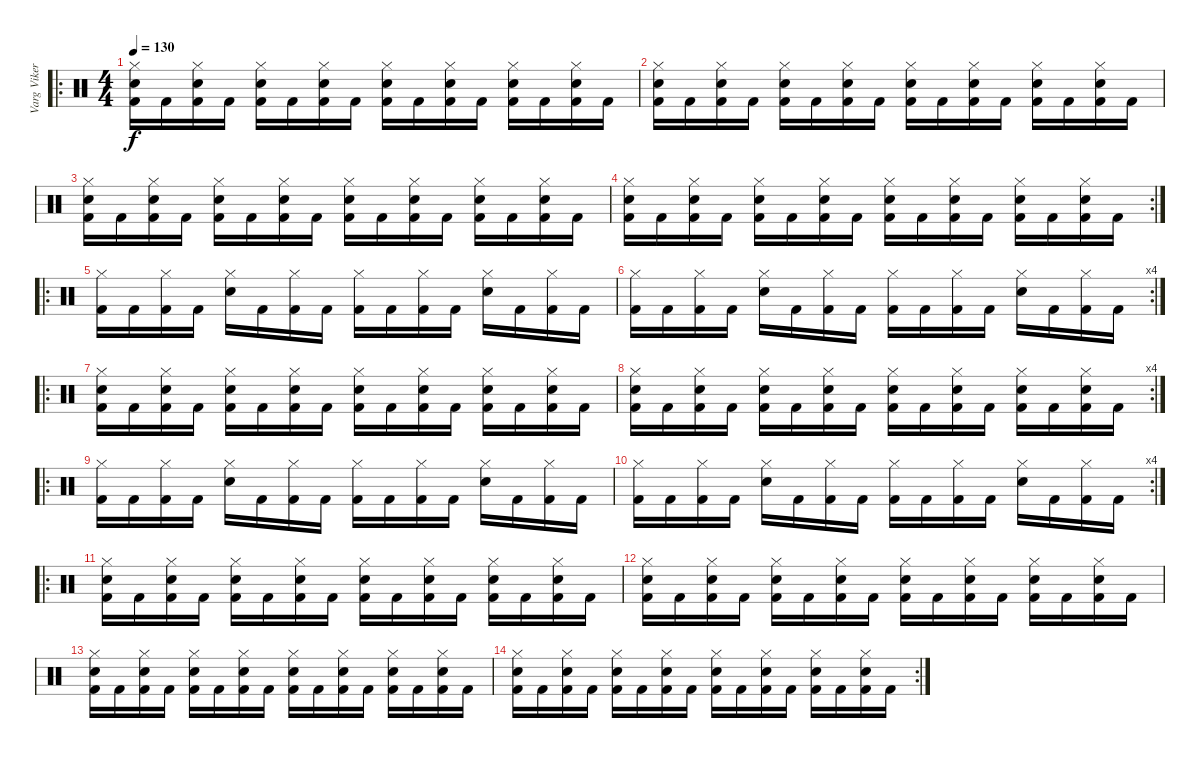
\track ("Varg Vikernes (Drums)" "Varg Viker") {instrument percussion}
\staff {score}
\articulation defaults
\ro
\ts (4 4)
\tempo 130
\clef neutral
\ks c
("Hi-Hat (closed)" "Kick (hit) 2" "Electric Snare (hit)").16{dy f} "Kick (hit) 2".16 ("Hi-Hat (closed)" "Kick (hit) 2" "Electric Snare (hit)").16 "Kick (hit) 2".16 ("Hi-Hat (closed)" "Kick (hit) 2" "Electric Snare (hit)").16 "Kick (hit) 2".16 ("Hi-Hat (closed)" "Kick (hit) 2" "Electric Snare (hit)").16 "Kick (hit) 2".16 ("Hi-Hat (closed)" "Kick (hit) 2" "Electric Snare (hit)").16 "Kick (hit) 2".16 ("Hi-Hat (closed)" "Kick (hit) 2" "Electric Snare (hit)").16 "Kick (hit) 2".16 ("Hi-Hat (closed)" "Kick (hit) 2" "Electric Snare (hit)").16 "Kick (hit) 2".16 ("Hi-Hat (closed)" "Kick (hit) 2" "Electric Snare (hit)").16 "Kick (hit) 2".16 |
("Hi-Hat (closed)" "Kick (hit) 2" "Electric Snare (hit)").16 "Kick (hit) 2".16 ("Hi-Hat (closed)" "Kick (hit) 2" "Electric Snare (hit)").16 "Kick (hit) 2".16 ("Hi-Hat (closed)" "Kick (hit) 2" "Electric Snare (hit)").16 "Kick (hit) 2".16 ("Hi-Hat (closed)" "Kick (hit) 2" "Electric Snare (hit)").16 "Kick (hit) 2".16 ("Hi-Hat (closed)" "Kick (hit) 2" "Electric Snare (hit)").16 "Kick (hit) 2".16 ("Hi-Hat (closed)" "Kick (hit) 2" "Electric Snare (hit)").16 "Kick (hit) 2".16 ("Hi-Hat (closed)" "Kick (hit) 2" "Electric Snare (hit)").16 "Kick (hit) 2".16 ("Hi-Hat (closed)" "Kick (hit) 2" "Electric Snare (hit)").16 "Kick (hit) 2".16 |
("Hi-Hat (closed)" "Kick (hit) 2" "Electric Snare (hit)").16 "Kick (hit) 2".16 ("Hi-Hat (closed)" "Kick (hit) 2" "Electric Snare (hit)").16 "Kick (hit) 2".16 ("Hi-Hat (closed)" "Kick (hit) 2" "Electric Snare (hit)").16 "Kick (hit) 2".16 ("Hi-Hat (closed)" "Kick (hit) 2" "Electric Snare (hit)").16 "Kick (hit) 2".16 ("Hi-Hat (closed)" "Kick (hit) 2" "Electric Snare (hit)").16 "Kick (hit) 2".16 ("Hi-Hat (closed)" "Kick (hit) 2" "Electric Snare (hit)").16 "Kick (hit) 2".16 ("Hi-Hat (closed)" "Kick (hit) 2" "Electric Snare (hit)").16 "Kick (hit) 2".16 ("Hi-Hat (closed)" "Kick (hit) 2" "Electric Snare (hit)").16 "Kick (hit) 2".16 |
\rc 2
("Hi-Hat (closed)" "Kick (hit) 2" "Electric Snare (hit)").16 "Kick (hit) 2".16 ("Hi-Hat (closed)" "Kick (hit) 2" "Electric Snare (hit)").16 "Kick (hit) 2".16 ("Hi-Hat (closed)" "Kick (hit) 2" "Electric Snare (hit)").16 "Kick (hit) 2".16 ("Hi-Hat (closed)" "Kick (hit) 2" "Electric Snare (hit)").16 "Kick (hit) 2".16 ("Hi-Hat (closed)" "Kick (hit) 2" "Electric Snare (hit)").16 "Kick (hit) 2".16 ("Hi-Hat (closed)" "Kick (hit) 2" "Electric Snare (hit)").16 "Kick (hit) 2".16 ("Hi-Hat (closed)" "Kick (hit) 2" "Electric Snare (hit)").16 "Kick (hit) 2".16 ("Hi-Hat (closed)" "Kick (hit) 2" "Electric Snare (hit)").16 "Kick (hit) 2".16 |
\ro
("Hi-Hat (closed)" "Kick (hit) 2").16 "Kick (hit) 2".16 ("Hi-Hat (closed)" "Kick (hit) 2").16 "Kick (hit) 2".16 ("Hi-Hat (closed)" "Electric Snare (hit)").16 "Kick (hit) 2".16 ("Hi-Hat (closed)" "Kick (hit) 2").16 "Kick (hit) 2".16 ("Hi-Hat (closed)" "Kick (hit) 2").16 "Kick (hit) 2".16 ("Hi-Hat (closed)" "Kick (hit) 2").16 "Kick (hit) 2".16 ("Hi-Hat (closed)" "Electric Snare (hit)").16 "Kick (hit) 2".16 ("Hi-Hat (closed)" "Kick (hit) 2").16 "Kick (hit) 2".16 |
\rc 4
("Hi-Hat (closed)" "Kick (hit) 2").16 "Kick (hit) 2".16 ("Hi-Hat (closed)" "Kick (hit) 2").16 "Kick (hit) 2".16 ("Hi-Hat (closed)" "Electric Snare (hit)").16 "Kick (hit) 2".16 ("Hi-Hat (closed)" "Kick (hit) 2").16 "Kick (hit) 2".16 ("Hi-Hat (closed)" "Kick (hit) 2").16 "Kick (hit) 2".16 ("Hi-Hat (closed)" "Kick (hit) 2").16 "Kick (hit) 2".16 ("Hi-Hat (closed)" "Electric Snare (hit)").16 "Kick (hit) 2".16 ("Hi-Hat (closed)" "Kick (hit) 2").16 "Kick (hit) 2".16 |
\ro
("Hi-Hat (closed)" "Electric Snare (hit)" "Kick (hit) 2").16 "Kick (hit) 2".16 ("Hi-Hat (closed)" "Electric Snare (hit)" "Kick (hit) 2").16 "Kick (hit) 2".16 ("Hi-Hat (closed)" "Electric Snare (hit)" "Kick (hit) 2").16 "Kick (hit) 2".16 ("Hi-Hat (closed)" "Electric Snare (hit)" "Kick (hit) 2").16 "Kick (hit) 2".16 ("Hi-Hat (closed)" "Electric Snare (hit)" "Kick (hit) 2").16 "Kick (hit) 2".16 ("Hi-Hat (closed)" "Electric Snare (hit)" "Kick (hit) 2").16 "Kick (hit) 2".16 ("Hi-Hat (closed)" "Electric Snare (hit)" "Kick (hit) 2").16 "Kick (hit) 2".16 ("Hi-Hat (closed)" "Electric Snare (hit)" "Kick (hit) 2").16 "Kick (hit) 2".16 |
\rc 4
("Hi-Hat (closed)" "Electric Snare (hit)" "Kick (hit) 2").16 "Kick (hit) 2".16 ("Hi-Hat (closed)" "Electric Snare (hit)" "Kick (hit) 2").16 "Kick (hit) 2".16 ("Hi-Hat (closed)" "Electric Snare (hit)" "Kick (hit) 2").16 "Kick (hit) 2".16 ("Hi-Hat (closed)" "Electric Snare (hit)" "Kick (hit) 2").16 "Kick (hit) 2".16 ("Hi-Hat (closed)" "Electric Snare (hit)" "Kick (hit) 2").16 "Kick (hit) 2".16 ("Hi-Hat (closed)" "Electric Snare (hit)" "Kick (hit) 2").16 "Kick (hit) 2".16 ("Hi-Hat (closed)" "Electric Snare (hit)" "Kick (hit) 2").16 "Kick (hit) 2".16 ("Hi-Hat (closed)" "Electric Snare (hit)" "Kick (hit) 2").16 "Kick (hit) 2".16 |
\ro
("Hi-Hat (closed)" "Kick (hit) 2").16 "Kick (hit) 2".16 ("Hi-Hat (closed)" "Kick (hit) 2").16 "Kick (hit) 2".16 ("Hi-Hat (closed)" "Electric Snare (hit)").16 "Kick (hit) 2".16 ("Hi-Hat (closed)" "Kick (hit) 2").16 "Kick (hit) 2".16 ("Hi-Hat (closed)" "Kick (hit) 2").16 "Kick (hit) 2".16 ("Hi-Hat (closed)" "Kick (hit) 2").16 "Kick (hit) 2".16 ("Hi-Hat (closed)" "Electric Snare (hit)").16 "Kick (hit) 2".16 ("Hi-Hat (closed)" "Kick (hit) 2").16 "Kick (hit) 2".16 |
\rc 4
("Hi-Hat (closed)" "Kick (hit) 2").16 "Kick (hit) 2".16 ("Hi-Hat (closed)" "Kick (hit) 2").16 "Kick (hit) 2".16 ("Hi-Hat (closed)" "Electric Snare (hit)").16 "Kick (hit) 2".16 ("Hi-Hat (closed)" "Kick (hit) 2").16 "Kick (hit) 2".16 ("Hi-Hat (closed)" "Kick (hit) 2").16 "Kick (hit) 2".16 ("Hi-Hat (closed)" "Kick (hit) 2").16 "Kick (hit) 2".16 ("Hi-Hat (closed)" "Electric Snare (hit)").16 "Kick (hit) 2".16 ("Hi-Hat (closed)" "Kick (hit) 2").16 "Kick (hit) 2".16 |
\ro
("Hi-Hat (closed)" "Kick (hit) 2" "Electric Snare (hit)").16 "Kick (hit) 2".16 ("Hi-Hat (closed)" "Kick (hit) 2" "Electric Snare (hit)").16 "Kick (hit) 2".16 ("Hi-Hat (closed)" "Kick (hit) 2" "Electric Snare (hit)").16 "Kick (hit) 2".16 ("Hi-Hat (closed)" "Kick (hit) 2" "Electric Snare (hit)").16 "Kick (hit) 2".16 ("Hi-Hat (closed)" "Kick (hit) 2" "Electric Snare (hit)").16 "Kick (hit) 2".16 ("Hi-Hat (closed)" "Kick (hit) 2" "Electric Snare (hit)").16 "Kick (hit) 2".16 ("Hi-Hat (closed)" "Kick (hit) 2" "Electric Snare (hit)").16 "Kick (hit) 2".16 ("Hi-Hat (closed)" "Kick (hit) 2" "Electric Snare (hit)").16 "Kick (hit) 2".16 |
("Hi-Hat (closed)" "Kick (hit) 2" "Electric Snare (hit)").16 "Kick (hit) 2".16 ("Hi-Hat (closed)" "Kick (hit) 2" "Electric Snare (hit)").16 "Kick (hit) 2".16 ("Hi-Hat (closed)" "Kick (hit) 2" "Electric Snare (hit)").16 "Kick (hit) 2".16 ("Hi-Hat (closed)" "Kick (hit) 2" "Electric Snare (hit)").16 "Kick (hit) 2".16 ("Hi-Hat (closed)" "Kick (hit) 2" "Electric Snare (hit)").16 "Kick (hit) 2".16 ("Hi-Hat (closed)" "Kick (hit) 2" "Electric Snare (hit)").16 "Kick (hit) 2".16 ("Hi-Hat (closed)" "Kick (hit) 2" "Electric Snare (hit)").16 "Kick (hit) 2".16 ("Hi-Hat (closed)" "Kick (hit) 2" "Electric Snare (hit)").16 "Kick (hit) 2".16 |
("Hi-Hat (closed)" "Kick (hit) 2" "Electric Snare (hit)").16 "Kick (hit) 2".16 ("Hi-Hat (closed)" "Kick (hit) 2" "Electric Snare (hit)").16 "Kick (hit) 2".16 ("Hi-Hat (closed)" "Kick (hit) 2" "Electric Snare (hit)").16 "Kick (hit) 2".16 ("Hi-Hat (closed)" "Kick (hit) 2" "Electric Snare (hit)").16 "Kick (hit) 2".16 ("Hi-Hat (closed)" "Kick (hit) 2" "Electric Snare (hit)").16 "Kick (hit) 2".16 ("Hi-Hat (closed)" "Kick (hit) 2" "Electric Snare (hit)").16 "Kick (hit) 2".16 ("Hi-Hat (closed)" "Kick (hit) 2" "Electric Snare (hit)").16 "Kick (hit) 2".16 ("Hi-Hat (closed)" "Kick (hit) 2" "Electric Snare (hit)").16 "Kick (hit) 2".16 |
\rc 2
("Hi-Hat (closed)" "Kick (hit) 2" "Electric Snare (hit)").16 "Kick (hit) 2".16 ("Hi-Hat (closed)" "Kick (hit) 2" "Electric Snare (hit)").16 "Kick (hit) 2".16 ("Hi-Hat (closed)" "Kick (hit) 2" "Electric Snare (hit)").16 "Kick (hit) 2".16 ("Hi-Hat (closed)" "Kick (hit) 2" "Electric Snare (hit)").16 "Kick (hit) 2".16 ("Hi-Hat (closed)" "Kick (hit) 2" "Electric Snare (hit)").16 "Kick (hit) 2".16 ("Hi-Hat (closed)" "Kick (hit) 2" "Electric Snare (hit)").16 "Kick (hit) 2".16 ("Hi-Hat (closed)" "Kick (hit) 2" "Electric Snare (hit)").16 "Kick (hit) 2".16 ("Hi-Hat (closed)" "Kick (hit) 2" "Electric Snare (hit)").16 "Kick (hit) 2".16
